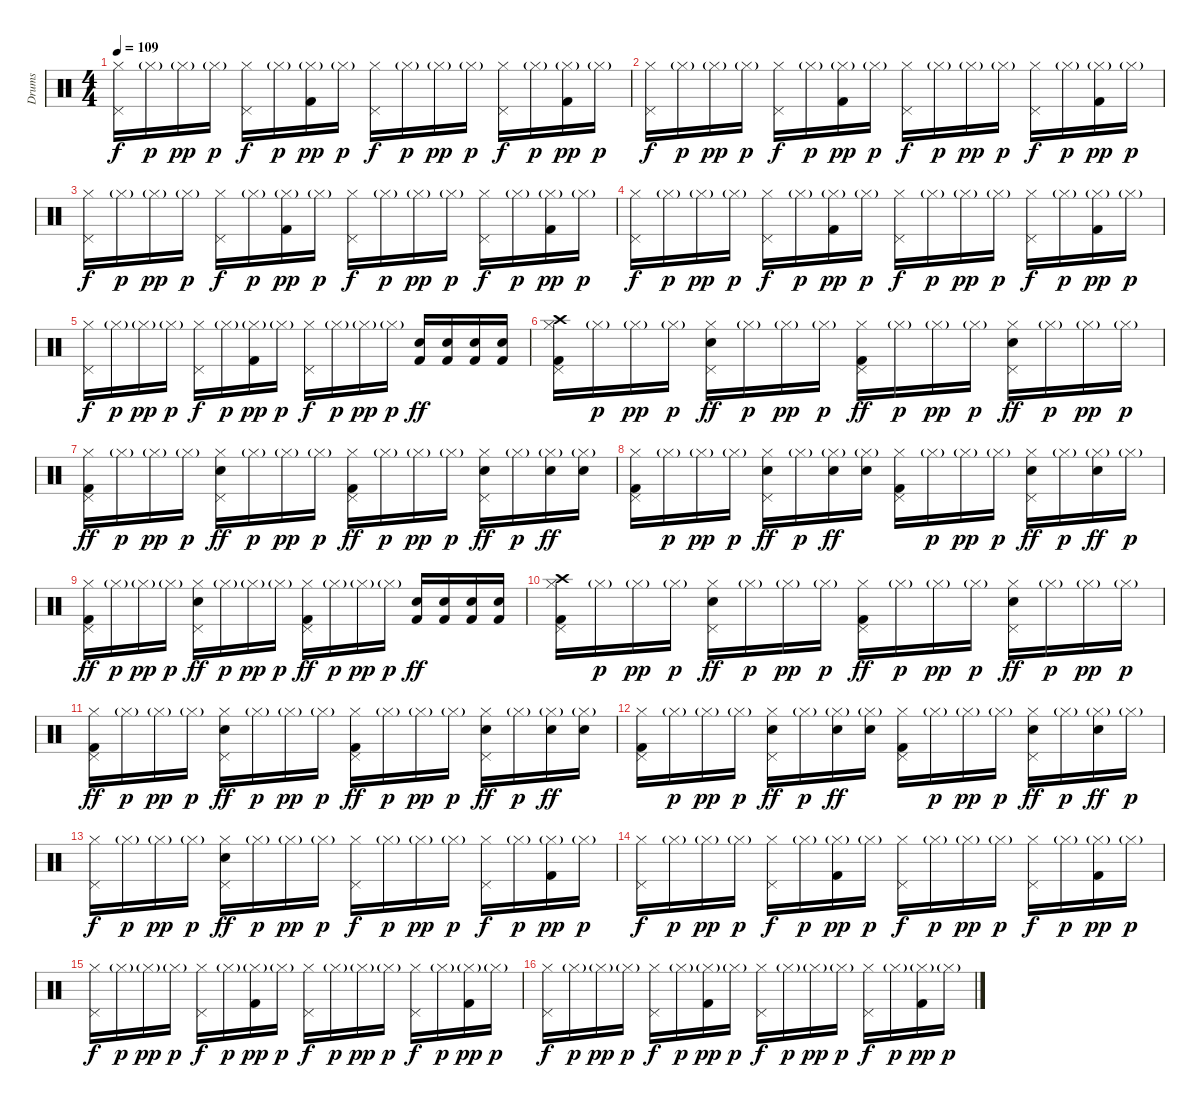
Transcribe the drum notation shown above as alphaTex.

\track ("Drums" "Drums") {instrument percussion}
\staff {score}
\articulation defaults
\ts (4 4)
\tempo 109
\clef neutral
\ks c
("Hi-Hat (closed)" "Pedal Hi-Hat (hit)").16{dy f} "Hi-Hat (closed)"{g}.16{dy p} "Hi-Hat (closed)"{g}.16{dy pp} "Hi-Hat (closed)"{g}.16{dy p} ("Hi-Hat (closed)" "Pedal Hi-Hat (hit)").16{dy f} "Hi-Hat (closed)"{g}.16{dy p} ("Hi-Hat (closed)"{g} "Kick (hit) 2").16{dy pp} "Hi-Hat (closed)"{g}.16{dy p} ("Hi-Hat (closed)" "Pedal Hi-Hat (hit)").16{dy f} "Hi-Hat (closed)"{g}.16{dy p} "Hi-Hat (closed)"{g}.16{dy pp} "Hi-Hat (closed)"{g}.16{dy p} ("Hi-Hat (closed)" "Pedal Hi-Hat (hit)").16{dy f} "Hi-Hat (closed)"{g}.16{dy p} ("Hi-Hat (closed)"{g} "Kick (hit) 2").16{dy pp} "Hi-Hat (closed)"{g}.16{dy p} |
("Hi-Hat (closed)" "Pedal Hi-Hat (hit)").16{dy f} "Hi-Hat (closed)"{g}.16{dy p} "Hi-Hat (closed)"{g}.16{dy pp} "Hi-Hat (closed)"{g}.16{dy p} ("Hi-Hat (closed)" "Pedal Hi-Hat (hit)").16{dy f} "Hi-Hat (closed)"{g}.16{dy p} ("Hi-Hat (closed)"{g} "Kick (hit) 2").16{dy pp} "Hi-Hat (closed)"{g}.16{dy p} ("Hi-Hat (closed)" "Pedal Hi-Hat (hit)").16{dy f} "Hi-Hat (closed)"{g}.16{dy p} "Hi-Hat (closed)"{g}.16{dy pp} "Hi-Hat (closed)"{g}.16{dy p} ("Hi-Hat (closed)" "Pedal Hi-Hat (hit)").16{dy f} "Hi-Hat (closed)"{g}.16{dy p} ("Hi-Hat (closed)"{g} "Kick (hit) 2").16{dy pp} "Hi-Hat (closed)"{g}.16{dy p} |
("Hi-Hat (closed)" "Pedal Hi-Hat (hit)").16{dy f} "Hi-Hat (closed)"{g}.16{dy p} "Hi-Hat (closed)"{g}.16{dy pp} "Hi-Hat (closed)"{g}.16{dy p} ("Hi-Hat (closed)" "Pedal Hi-Hat (hit)").16{dy f} "Hi-Hat (closed)"{g}.16{dy p} ("Hi-Hat (closed)"{g} "Kick (hit) 2").16{dy pp} "Hi-Hat (closed)"{g}.16{dy p} ("Hi-Hat (closed)" "Pedal Hi-Hat (hit)").16{dy f} "Hi-Hat (closed)"{g}.16{dy p} "Hi-Hat (closed)"{g}.16{dy pp} "Hi-Hat (closed)"{g}.16{dy p} ("Hi-Hat (closed)" "Pedal Hi-Hat (hit)").16{dy f} "Hi-Hat (closed)"{g}.16{dy p} ("Hi-Hat (closed)"{g} "Kick (hit) 2").16{dy pp} "Hi-Hat (closed)"{g}.16{dy p} |
("Hi-Hat (closed)" "Pedal Hi-Hat (hit)").16{dy f} "Hi-Hat (closed)"{g}.16{dy p} "Hi-Hat (closed)"{g}.16{dy pp} "Hi-Hat (closed)"{g}.16{dy p} ("Hi-Hat (closed)" "Pedal Hi-Hat (hit)").16{dy f} "Hi-Hat (closed)"{g}.16{dy p} ("Hi-Hat (closed)"{g} "Kick (hit) 2").16{dy pp} "Hi-Hat (closed)"{g}.16{dy p} ("Hi-Hat (closed)" "Pedal Hi-Hat (hit)").16{dy f} "Hi-Hat (closed)"{g}.16{dy p} "Hi-Hat (closed)"{g}.16{dy pp} "Hi-Hat (closed)"{g}.16{dy p} ("Hi-Hat (closed)" "Pedal Hi-Hat (hit)").16{dy f} "Hi-Hat (closed)"{g}.16{dy p} ("Hi-Hat (closed)"{g} "Kick (hit) 2").16{dy pp} "Hi-Hat (closed)"{g}.16{dy p} |
("Hi-Hat (closed)" "Pedal Hi-Hat (hit)").16{dy f} "Hi-Hat (closed)"{g}.16{dy p} "Hi-Hat (closed)"{g}.16{dy pp} "Hi-Hat (closed)"{g}.16{dy p} ("Hi-Hat (closed)" "Pedal Hi-Hat (hit)").16{dy f} "Hi-Hat (closed)"{g}.16{dy p} ("Hi-Hat (closed)"{g} "Kick (hit) 2").16{dy pp} "Hi-Hat (closed)"{g}.16{dy p} ("Hi-Hat (closed)" "Pedal Hi-Hat (hit)").16{dy f} "Hi-Hat (closed)"{g}.16{dy p} "Hi-Hat (closed)"{g}.16{dy pp} "Hi-Hat (closed)"{g}.16{dy p} ("Kick (hit) 2" "Electric Snare (hit)").16{dy ff} ("Kick (hit) 2" "Electric Snare (hit)").16 ("Kick (hit) 2" "Electric Snare (hit)").16 ("Kick (hit) 2" "Electric Snare (hit)").16 |
("Hi-Hat (closed)" "Pedal Hi-Hat (hit)" "Kick (hit) 2" "Crash high (hit)").16 "Hi-Hat (closed)"{g}.16{dy p} "Hi-Hat (closed)"{g}.16{dy pp} "Hi-Hat (closed)"{g}.16{dy p} ("Hi-Hat (closed)" "Pedal Hi-Hat (hit)" "Electric Snare (hit)").16{dy ff} "Hi-Hat (closed)"{g}.16{dy p} "Hi-Hat (closed)"{g}.16{dy pp} "Hi-Hat (closed)"{g}.16{dy p} ("Hi-Hat (closed)" "Pedal Hi-Hat (hit)" "Kick (hit) 2").16{dy ff} "Hi-Hat (closed)"{g}.16{dy p} "Hi-Hat (closed)"{g}.16{dy pp} "Hi-Hat (closed)"{g}.16{dy p} ("Hi-Hat (closed)" "Pedal Hi-Hat (hit)" "Electric Snare (hit)").16{dy ff} "Hi-Hat (closed)"{g}.16{dy p} "Hi-Hat (closed)"{g}.16{dy pp} "Hi-Hat (closed)"{g}.16{dy p} |
("Hi-Hat (closed)" "Pedal Hi-Hat (hit)" "Kick (hit) 2").16{dy ff} "Hi-Hat (closed)"{g}.16{dy p} "Hi-Hat (closed)"{g}.16{dy pp} "Hi-Hat (closed)"{g}.16{dy p} ("Hi-Hat (closed)" "Pedal Hi-Hat (hit)" "Electric Snare (hit)").16{dy ff} "Hi-Hat (closed)"{g}.16{dy p} "Hi-Hat (closed)"{g}.16{dy pp} "Hi-Hat (closed)"{g}.16{dy p} ("Hi-Hat (closed)" "Pedal Hi-Hat (hit)" "Kick (hit) 2").16{dy ff} "Hi-Hat (closed)"{g}.16{dy p} "Hi-Hat (closed)"{g}.16{dy pp} "Hi-Hat (closed)"{g}.16{dy p} ("Hi-Hat (closed)" "Pedal Hi-Hat (hit)" "Electric Snare (hit)").16{dy ff} "Hi-Hat (closed)"{g}.16{dy p} ("Hi-Hat (closed)"{g} "Electric Snare (hit)").16{dy ff} ("Hi-Hat (closed)"{g} "Electric Snare (hit)").16 |
("Hi-Hat (closed)" "Pedal Hi-Hat (hit)" "Kick (hit) 2").16 "Hi-Hat (closed)"{g}.16{dy p} "Hi-Hat (closed)"{g}.16{dy pp} "Hi-Hat (closed)"{g}.16{dy p} ("Hi-Hat (closed)" "Pedal Hi-Hat (hit)" "Electric Snare (hit)").16{dy ff} "Hi-Hat (closed)"{g}.16{dy p} ("Hi-Hat (closed)"{g} "Electric Snare (hit)").16{dy ff} ("Hi-Hat (closed)"{g} "Electric Snare (hit)").16 ("Hi-Hat (closed)" "Pedal Hi-Hat (hit)" "Kick (hit) 2").16 "Hi-Hat (closed)"{g}.16{dy p} "Hi-Hat (closed)"{g}.16{dy pp} "Hi-Hat (closed)"{g}.16{dy p} ("Hi-Hat (closed)" "Pedal Hi-Hat (hit)" "Electric Snare (hit)").16{dy ff} "Hi-Hat (closed)"{g}.16{dy p} ("Hi-Hat (closed)"{g} "Electric Snare (hit)").16{dy ff} "Hi-Hat (closed)"{g}.16{dy p} |
("Hi-Hat (closed)" "Pedal Hi-Hat (hit)" "Kick (hit) 2").16{dy ff} "Hi-Hat (closed)"{g}.16{dy p} "Hi-Hat (closed)"{g}.16{dy pp} "Hi-Hat (closed)"{g}.16{dy p} ("Hi-Hat (closed)" "Pedal Hi-Hat (hit)" "Electric Snare (hit)").16{dy ff} "Hi-Hat (closed)"{g}.16{dy p} "Hi-Hat (closed)"{g}.16{dy pp} "Hi-Hat (closed)"{g}.16{dy p} ("Hi-Hat (closed)" "Pedal Hi-Hat (hit)" "Kick (hit) 2").16{dy ff} "Hi-Hat (closed)"{g}.16{dy p} "Hi-Hat (closed)"{g}.16{dy pp} "Hi-Hat (closed)"{g}.16{dy p} ("Kick (hit) 2" "Electric Snare (hit)").16{dy ff} ("Kick (hit) 2" "Electric Snare (hit)").16 ("Kick (hit) 2" "Electric Snare (hit)").16 ("Kick (hit) 2" "Electric Snare (hit)").16 |
("Hi-Hat (closed)" "Pedal Hi-Hat (hit)" "Kick (hit) 2" "Crash high (hit)").16 "Hi-Hat (closed)"{g}.16{dy p} "Hi-Hat (closed)"{g}.16{dy pp} "Hi-Hat (closed)"{g}.16{dy p} ("Hi-Hat (closed)" "Pedal Hi-Hat (hit)" "Electric Snare (hit)").16{dy ff} "Hi-Hat (closed)"{g}.16{dy p} "Hi-Hat (closed)"{g}.16{dy pp} "Hi-Hat (closed)"{g}.16{dy p} ("Hi-Hat (closed)" "Pedal Hi-Hat (hit)" "Kick (hit) 2").16{dy ff} "Hi-Hat (closed)"{g}.16{dy p} "Hi-Hat (closed)"{g}.16{dy pp} "Hi-Hat (closed)"{g}.16{dy p} ("Hi-Hat (closed)" "Pedal Hi-Hat (hit)" "Electric Snare (hit)").16{dy ff} "Hi-Hat (closed)"{g}.16{dy p} "Hi-Hat (closed)"{g}.16{dy pp} "Hi-Hat (closed)"{g}.16{dy p} |
("Hi-Hat (closed)" "Pedal Hi-Hat (hit)" "Kick (hit) 2").16{dy ff} "Hi-Hat (closed)"{g}.16{dy p} "Hi-Hat (closed)"{g}.16{dy pp} "Hi-Hat (closed)"{g}.16{dy p} ("Hi-Hat (closed)" "Pedal Hi-Hat (hit)" "Electric Snare (hit)").16{dy ff} "Hi-Hat (closed)"{g}.16{dy p} "Hi-Hat (closed)"{g}.16{dy pp} "Hi-Hat (closed)"{g}.16{dy p} ("Hi-Hat (closed)" "Pedal Hi-Hat (hit)" "Kick (hit) 2").16{dy ff} "Hi-Hat (closed)"{g}.16{dy p} "Hi-Hat (closed)"{g}.16{dy pp} "Hi-Hat (closed)"{g}.16{dy p} ("Hi-Hat (closed)" "Pedal Hi-Hat (hit)" "Electric Snare (hit)").16{dy ff} "Hi-Hat (closed)"{g}.16{dy p} ("Hi-Hat (closed)"{g} "Electric Snare (hit)").16{dy ff} ("Hi-Hat (closed)"{g} "Electric Snare (hit)").16 |
("Hi-Hat (closed)" "Pedal Hi-Hat (hit)" "Kick (hit) 2").16 "Hi-Hat (closed)"{g}.16{dy p} "Hi-Hat (closed)"{g}.16{dy pp} "Hi-Hat (closed)"{g}.16{dy p} ("Hi-Hat (closed)" "Pedal Hi-Hat (hit)" "Electric Snare (hit)").16{dy ff} "Hi-Hat (closed)"{g}.16{dy p} ("Hi-Hat (closed)"{g} "Electric Snare (hit)").16{dy ff} ("Hi-Hat (closed)"{g} "Electric Snare (hit)").16 ("Hi-Hat (closed)" "Pedal Hi-Hat (hit)" "Kick (hit) 2").16 "Hi-Hat (closed)"{g}.16{dy p} "Hi-Hat (closed)"{g}.16{dy pp} "Hi-Hat (closed)"{g}.16{dy p} ("Hi-Hat (closed)" "Pedal Hi-Hat (hit)" "Electric Snare (hit)").16{dy ff} "Hi-Hat (closed)"{g}.16{dy p} ("Hi-Hat (closed)"{g} "Electric Snare (hit)").16{dy ff} "Hi-Hat (closed)"{g}.16{dy p} |
("Hi-Hat (closed)" "Pedal Hi-Hat (hit)").16{dy f} "Hi-Hat (closed)"{g}.16{dy p} "Hi-Hat (closed)"{g}.16{dy pp} "Hi-Hat (closed)"{g}.16{dy p} ("Hi-Hat (closed)" "Pedal Hi-Hat (hit)" "Electric Snare (hit)").16{dy ff} "Hi-Hat (closed)"{g}.16{dy p} "Hi-Hat (closed)"{g}.16{dy pp} "Hi-Hat (closed)"{g}.16{dy p} ("Hi-Hat (closed)" "Pedal Hi-Hat (hit)").16{dy f} "Hi-Hat (closed)"{g}.16{dy p} "Hi-Hat (closed)"{g}.16{dy pp} "Hi-Hat (closed)"{g}.16{dy p} ("Hi-Hat (closed)" "Pedal Hi-Hat (hit)").16{dy f} "Hi-Hat (closed)"{g}.16{dy p} ("Hi-Hat (closed)"{g} "Kick (hit) 2").16{dy pp} "Hi-Hat (closed)"{g}.16{dy p} |
("Hi-Hat (closed)" "Pedal Hi-Hat (hit)").16{dy f} "Hi-Hat (closed)"{g}.16{dy p} "Hi-Hat (closed)"{g}.16{dy pp} "Hi-Hat (closed)"{g}.16{dy p} ("Hi-Hat (closed)" "Pedal Hi-Hat (hit)").16{dy f} "Hi-Hat (closed)"{g}.16{dy p} ("Hi-Hat (closed)"{g} "Kick (hit) 2").16{dy pp} "Hi-Hat (closed)"{g}.16{dy p} ("Hi-Hat (closed)" "Pedal Hi-Hat (hit)").16{dy f} "Hi-Hat (closed)"{g}.16{dy p} "Hi-Hat (closed)"{g}.16{dy pp} "Hi-Hat (closed)"{g}.16{dy p} ("Hi-Hat (closed)" "Pedal Hi-Hat (hit)").16{dy f} "Hi-Hat (closed)"{g}.16{dy p} ("Hi-Hat (closed)"{g} "Kick (hit) 2").16{dy pp} "Hi-Hat (closed)"{g}.16{dy p} |
("Hi-Hat (closed)" "Pedal Hi-Hat (hit)").16{dy f} "Hi-Hat (closed)"{g}.16{dy p} "Hi-Hat (closed)"{g}.16{dy pp} "Hi-Hat (closed)"{g}.16{dy p} ("Hi-Hat (closed)" "Pedal Hi-Hat (hit)").16{dy f} "Hi-Hat (closed)"{g}.16{dy p} ("Hi-Hat (closed)"{g} "Kick (hit) 2").16{dy pp} "Hi-Hat (closed)"{g}.16{dy p} ("Hi-Hat (closed)" "Pedal Hi-Hat (hit)").16{dy f} "Hi-Hat (closed)"{g}.16{dy p} "Hi-Hat (closed)"{g}.16{dy pp} "Hi-Hat (closed)"{g}.16{dy p} ("Hi-Hat (closed)" "Pedal Hi-Hat (hit)").16{dy f} "Hi-Hat (closed)"{g}.16{dy p} ("Hi-Hat (closed)"{g} "Kick (hit) 2").16{dy pp} "Hi-Hat (closed)"{g}.16{dy p} |
("Hi-Hat (closed)" "Pedal Hi-Hat (hit)").16{dy f} "Hi-Hat (closed)"{g}.16{dy p} "Hi-Hat (closed)"{g}.16{dy pp} "Hi-Hat (closed)"{g}.16{dy p} ("Hi-Hat (closed)" "Pedal Hi-Hat (hit)").16{dy f} "Hi-Hat (closed)"{g}.16{dy p} ("Hi-Hat (closed)"{g} "Kick (hit) 2").16{dy pp} "Hi-Hat (closed)"{g}.16{dy p} ("Hi-Hat (closed)" "Pedal Hi-Hat (hit)").16{dy f} "Hi-Hat (closed)"{g}.16{dy p} "Hi-Hat (closed)"{g}.16{dy pp} "Hi-Hat (closed)"{g}.16{dy p} ("Hi-Hat (closed)" "Pedal Hi-Hat (hit)").16{dy f} "Hi-Hat (closed)"{g}.16{dy p} ("Hi-Hat (closed)"{g} "Kick (hit) 2").16{dy pp} "Hi-Hat (closed)"{g}.16{dy p}
